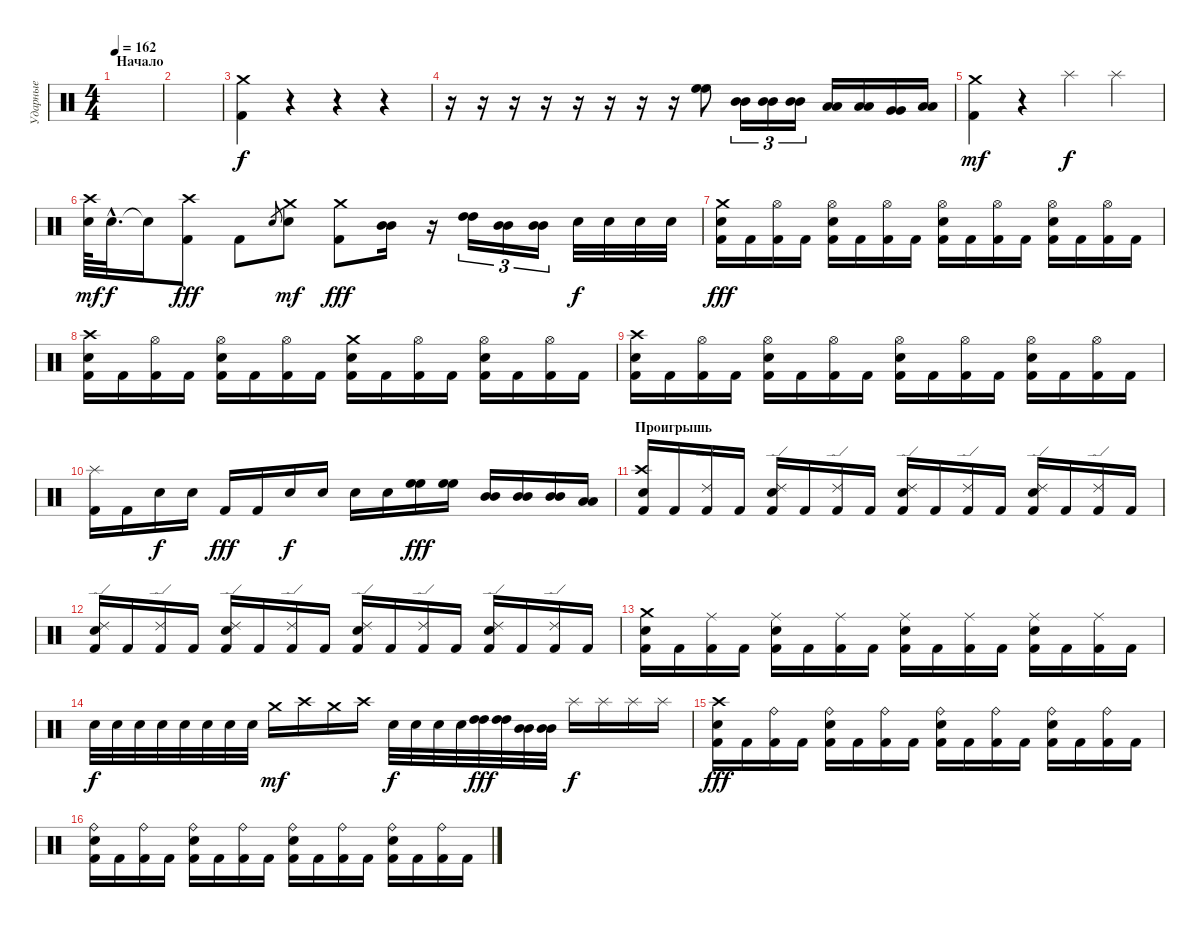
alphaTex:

\track ("Ударные" "Ударные") {instrument percussion}
\staff {score}
\articulation defaults
\ts (4 4)
\section ("" "Начало")
\tempo 162
\clef neutral
\ks c
|
|
("Crash medium (hit)" "Kick (hit) 2").4 r.4 r.4 r.4 |
r.16 r.16 r.16 r.16 r.16 r.16 r.16 r.16 ("High Floor Tom (hit)" "High Floor Tom (hit)").8 ("Mid Tom (hit)" "Mid Tom (hit)").16{tu (3 2)} ("Mid Tom (hit)" "Mid Tom (hit)").16{tu (3 2)} ("Mid Tom (hit)" "Mid Tom (hit)").16{tu (3 2)} ("Low Tom (hit)" "Low Tom (hit)").16 ("Low Tom (hit)" "Low Tom (hit)").16 ("Very Low Tom (hit)" "Very Low Tom (hit)").16 ("Low Floor Tom (hit)" "Low Floor Tom (hit)").16 |
("Kick (hit) 2" "Crash medium (hit)").4{dy mf} r.4 "Splash (hit)".4{dy f} "Splash (hit)".4 |
("Crash high (hit)" "Electric Snare (hit)").64{dy mf} "Electric Snare (hit)"{hac}.32{d dy f} "Snare (hit)"{t}.16 ("Crash high (hit)" "Kick (hit) 2").8{dy fff} "Kick (hit) 2".8 "Electric Snare (hit)".8{gr} ("Crash medium (hit)" "Electric Snare (hit)").8{dy mf} ("Crash medium (hit)" "Kick (hit) 2").8{dy fff} ("Mid Tom (hit)" "Mid Tom (hit)").16 r.16 ("High Tom (hit)" "High Tom (hit)").16{tu (3 2)} ("Mid Tom (hit)" "Mid Tom (hit)").16{tu (3 2)} ("Mid Tom (hit)" "Mid Tom (hit)").16{tu (3 2)} "Electric Snare (hit)".32{dy f} "Electric Snare (hit)".32 "Electric Snare (hit)".32 "Electric Snare (hit)".32 |
("Crash medium (hit)" "Electric Snare (hit)" "Kick (hit) 2").16{dy fff} "Kick (hit) 2".16 ("Hi-Hat (open)" "Kick (hit) 2").16 "Kick (hit) 2".16 ("Hi-Hat (open)" "Electric Snare (hit)" "Kick (hit) 2").16 "Kick (hit) 2".16 ("Hi-Hat (open)" "Kick (hit) 2").16 "Kick (hit) 2".16 ("Hi-Hat (open)" "Electric Snare (hit)" "Kick (hit) 2").16 "Kick (hit) 2".16 ("Hi-Hat (open)" "Kick (hit) 2").16 "Kick (hit) 2".16 ("Hi-Hat (open)" "Electric Snare (hit)" "Kick (hit) 2").16 "Kick (hit) 2".16 ("Hi-Hat (open)" "Kick (hit) 2").16 "Kick (hit) 2".16 |
("Crash high (hit)" "Electric Snare (hit)" "Kick (hit) 2").16 "Kick (hit) 2".16 ("Hi-Hat (open)" "Kick (hit) 2").16 "Kick (hit) 2".16 ("Hi-Hat (open)" "Electric Snare (hit)" "Kick (hit) 2").16 "Kick (hit) 2".16 ("Hi-Hat (open)" "Kick (hit) 2").16 "Kick (hit) 2".16 ("Crash medium (hit)" "Electric Snare (hit)" "Kick (hit) 2").16 "Kick (hit) 2".16 ("Hi-Hat (open)" "Kick (hit) 2").16 "Kick (hit) 2".16 ("Hi-Hat (open)" "Electric Snare (hit)" "Kick (hit) 2").16 "Kick (hit) 2".16 ("Hi-Hat (open)" "Kick (hit) 2").16 "Kick (hit) 2".16 |
("Crash high (hit)" "Electric Snare (hit)" "Kick (hit) 2").16 "Kick (hit) 2".16 ("Hi-Hat (open)" "Kick (hit) 2").16 "Kick (hit) 2".16 ("Hi-Hat (open)" "Electric Snare (hit)" "Kick (hit) 2").16 "Kick (hit) 2".16 ("Hi-Hat (open)" "Kick (hit) 2").16 "Kick (hit) 2".16 ("Hi-Hat (open)" "Electric Snare (hit)" "Kick (hit) 2").16 "Kick (hit) 2".16 ("Hi-Hat (open)" "Kick (hit) 2").16 "Kick (hit) 2".16 ("Hi-Hat (open)" "Electric Snare (hit)" "Kick (hit) 2").16 "Kick (hit) 2".16 ("Hi-Hat (open)" "Kick (hit) 2").16 "Kick (hit) 2".16 |
("Splash (hit)" "Kick (hit) 2").16 "Kick (hit) 2".16 "Electric Snare (hit)".16{dy f} "Electric Snare (hit)".16 "Kick (hit) 2".16{dy fff} "Kick (hit) 2".16 "Electric Snare (hit)".16{dy f} "Electric Snare (hit)".16 "Electric Snare (hit)".16 "Electric Snare (hit)".16 ("High Floor Tom (hit)" "High Floor Tom (hit)").16{dy fff} ("High Floor Tom (hit)" "High Floor Tom (hit)").16 ("Mid Tom (hit)" "Mid Tom (hit)").16 ("Mid Tom (hit)" "Mid Tom (hit)").16 ("Mid Tom (hit)" "Mid Tom (hit)").16 ("Low Tom (hit)" "Low Tom (hit)").16 |
\section ("" "Проигрышь")
("Crash high (hit)" "Electric Snare (hit)" "Kick (hit) 2").16 "Kick (hit) 2".16 ("Ride (edge) 2" "Kick (hit) 2").16 "Kick (hit) 2".16 ("Ride (edge) 2" "Electric Snare (hit)" "Kick (hit) 2").16 "Kick (hit) 2".16 ("Ride (edge) 2" "Kick (hit) 2").16 "Kick (hit) 2".16 ("Ride (edge) 2" "Electric Snare (hit)" "Kick (hit) 2").16 "Kick (hit) 2".16 ("Ride (edge) 2" "Kick (hit) 2").16 "Kick (hit) 2".16 ("Ride (edge) 2" "Electric Snare (hit)" "Kick (hit) 2").16 "Kick (hit) 2".16 ("Ride (edge) 2" "Kick (hit) 2").16 "Kick (hit) 2".16 |
("Ride (edge) 2" "Electric Snare (hit)" "Kick (hit) 2").16 "Kick (hit) 2".16 ("Ride (edge) 2" "Kick (hit) 2").16 "Kick (hit) 2".16 ("Ride (edge) 2" "Electric Snare (hit)" "Kick (hit) 2").16 "Kick (hit) 2".16 ("Ride (edge) 2" "Kick (hit) 2").16 "Kick (hit) 2".16 ("Ride (edge) 2" "Electric Snare (hit)" "Kick (hit) 2").16 "Kick (hit) 2".16 ("Ride (edge) 2" "Kick (hit) 2").16 "Kick (hit) 2".16 ("Ride (edge) 2" "Electric Snare (hit)" "Kick (hit) 2").16 "Kick (hit) 2".16 ("Ride (edge) 2" "Kick (hit) 2").16 "Kick (hit) 2".16 |
("Crash medium (hit)" "Electric Snare (hit)" "Kick (hit) 2").16 "Kick (hit) 2".16 ("Ride (middle)" "Kick (hit) 2").16 "Kick (hit) 2".16 ("Ride (middle)" "Electric Snare (hit)" "Kick (hit) 2").16 "Kick (hit) 2".16 ("Ride (middle)" "Kick (hit) 2").16 "Kick (hit) 2".16 ("Ride (middle)" "Electric Snare (hit)" "Kick (hit) 2").16 "Kick (hit) 2".16 ("Ride (middle)" "Kick (hit) 2").16 "Kick (hit) 2".16 ("Ride (middle)" "Electric Snare (hit)" "Kick (hit) 2").16 "Kick (hit) 2".16 ("Ride (middle)" "Kick (hit) 2").16 "Kick (hit) 2".16 |
"Electric Snare (hit)".32{dy f} "Electric Snare (hit)".32 "Electric Snare (hit)".32 "Electric Snare (hit)".32 "Electric Snare (hit)".32 "Electric Snare (hit)".32 "Electric Snare (hit)".32 "Electric Snare (hit)".32 "Crash medium (hit)".16{dy mf} "Crash high (hit)".16 "Crash medium (hit)".16 "Crash high (hit)".16 "Electric Snare (hit)".32{dy f} "Electric Snare (hit)".32 "Electric Snare (hit)".32 "Electric Snare (hit)".32 ("High Tom (hit)" "High Tom (hit)").32{dy fff} ("High Tom (hit)" "High Tom (hit)").32 ("Mid Tom (hit)" "Mid Tom (hit)").32 ("Mid Tom (hit)" "Mid Tom (hit)").32 "Splash (hit)".16{dy f} "Splash (hit)".16 "Splash (hit)".16 "Splash (hit)".16 |
("Crash high (hit)" "Electric Snare (hit)" "Kick (hit) 2").16{dy fff} "Kick (hit) 2".16 ("Ride (bell)" "Kick (hit) 2").16 "Kick (hit) 2".16 ("Ride (bell)" "Electric Snare (hit)" "Kick (hit) 2").16 "Kick (hit) 2".16 ("Ride (bell)" "Kick (hit) 2").16 "Kick (hit) 2".16 ("Ride (bell)" "Electric Snare (hit)" "Kick (hit) 2").16 "Kick (hit) 2".16 ("Ride (bell)" "Kick (hit) 2").16 "Kick (hit) 2".16 ("Ride (bell)" "Electric Snare (hit)" "Kick (hit) 2").16 "Kick (hit) 2".16 ("Ride (bell)" "Kick (hit) 2").16 "Kick (hit) 2".16 |
("Ride (bell)" "Electric Snare (hit)" "Kick (hit) 2").16 "Kick (hit) 2".16 ("Ride (bell)" "Kick (hit) 2").16 "Kick (hit) 2".16 ("Ride (bell)" "Electric Snare (hit)" "Kick (hit) 2").16 "Kick (hit) 2".16 ("Ride (bell)" "Kick (hit) 2").16 "Kick (hit) 2".16 ("Ride (bell)" "Electric Snare (hit)" "Kick (hit) 2").16 "Kick (hit) 2".16 ("Ride (bell)" "Kick (hit) 2").16 "Kick (hit) 2".16 ("Ride (bell)" "Electric Snare (hit)" "Kick (hit) 2").16 "Kick (hit) 2".16 ("Ride (bell)" "Kick (hit) 2").16 "Kick (hit) 2".16
